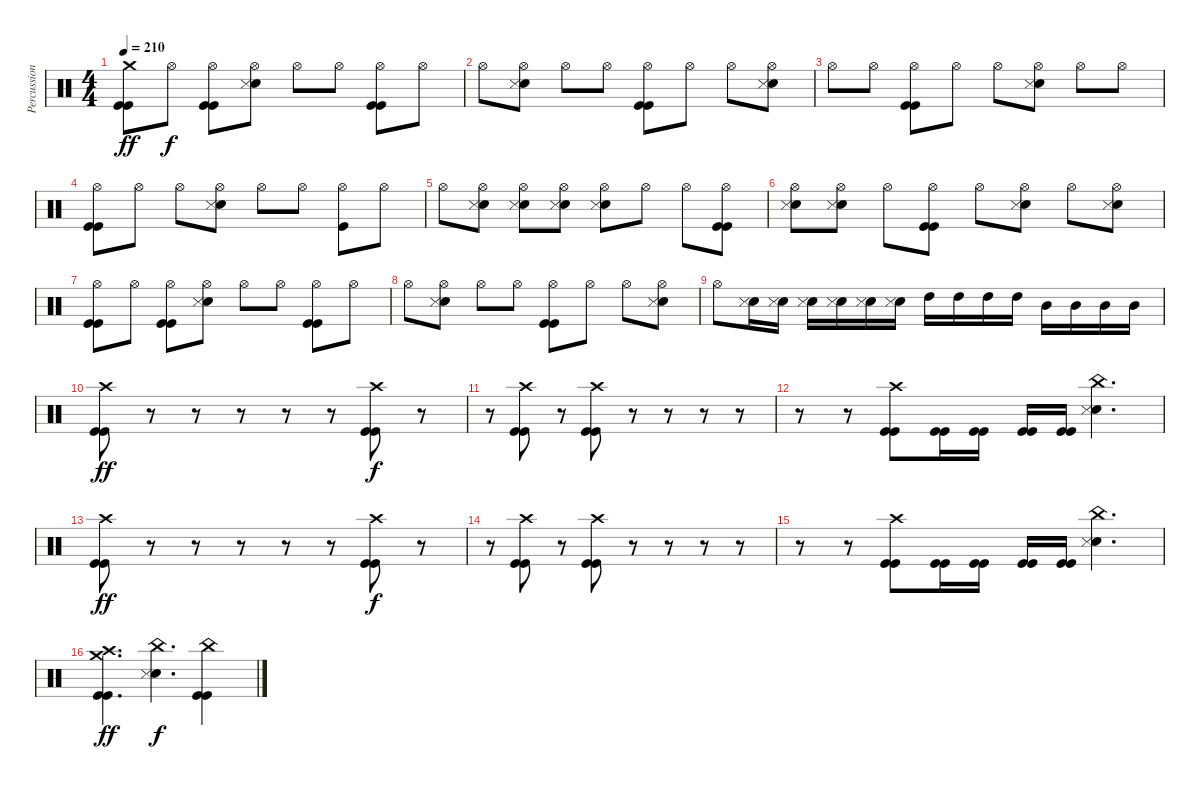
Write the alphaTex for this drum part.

\track ("Percussion" "Percussion") {instrument percussion}
\staff {score}
\articulation defaults
\ts (4 4)
\tempo 210
\clef neutral
\ks c
("Crash medium (hit)" "Kick (hit)" "Kick (hit)").8{dy ff} "Hi-Hat (open)".8{dy f} ("Hi-Hat (open)" "Kick (hit)" "Kick (hit)").8 ("Hi-Hat (open)" "Snare (hit) 2" "Snare (side stick) 3").8 "Hi-Hat (open)".8 "Hi-Hat (open)".8 ("Hi-Hat (open)" "Kick (hit)" "Kick (hit)").8 "Hi-Hat (open)".8 |
"Hi-Hat (open)".8 ("Hi-Hat (open)" "Snare (hit) 2" "Snare (side stick) 3").8 "Hi-Hat (open)".8 "Hi-Hat (open)".8 ("Hi-Hat (open)" "Kick (hit)" "Kick (hit)").8 "Hi-Hat (open)".8 "Hi-Hat (open)".8 ("Hi-Hat (open)" "Snare (hit) 2" "Snare (side stick) 3").8 |
"Hi-Hat (open)".8 "Hi-Hat (open)".8 ("Hi-Hat (open)" "Kick (hit)" "Kick (hit)").8 "Hi-Hat (open)".8 "Hi-Hat (open)".8 ("Hi-Hat (open)" "Snare (hit) 2" "Snare (side stick) 3").8 "Hi-Hat (open)".8 "Hi-Hat (open)".8 |
("Hi-Hat (open)" "Kick (hit)" "Kick (hit)").8 "Hi-Hat (open)".8 "Hi-Hat (open)".8 ("Hi-Hat (open)" "Snare (hit) 2" "Snare (side stick) 3").8 "Hi-Hat (open)".8 "Hi-Hat (open)".8 ("Hi-Hat (open)" "Kick (hit)").8 "Hi-Hat (open)".8 |
"Hi-Hat (open)".8 ("Hi-Hat (open)" "Snare (hit) 2" "Snare (side stick) 3").8 ("Hi-Hat (open)" "Snare (hit) 2" "Snare (side stick) 3").8 ("Hi-Hat (open)" "Snare (hit) 2" "Snare (side stick) 3").8 ("Hi-Hat (open)" "Snare (hit) 2" "Snare (side stick) 3").8 "Hi-Hat (open)".8 "Hi-Hat (open)".8 ("Hi-Hat (open)" "Kick (hit)" "Kick (hit)").8 |
("Hi-Hat (open)" "Snare (hit) 2" "Snare (side stick) 3").8 ("Hi-Hat (open)" "Snare (hit) 2" "Snare (side stick) 3").8 "Hi-Hat (open)".8 ("Hi-Hat (open)" "Kick (hit)" "Kick (hit)").8 "Hi-Hat (open)".8 ("Hi-Hat (open)" "Snare (hit) 2" "Snare (side stick) 3").8 "Hi-Hat (open)".8 ("Hi-Hat (open)" "Snare (hit) 2" "Snare (side stick) 3").8 |
("Hi-Hat (open)" "Kick (hit)" "Kick (hit)").8 "Hi-Hat (open)".8 ("Hi-Hat (open)" "Kick (hit)" "Kick (hit)").8 ("Hi-Hat (open)" "Snare (hit) 2" "Snare (side stick) 3").8 "Hi-Hat (open)".8 "Hi-Hat (open)".8 ("Hi-Hat (open)" "Kick (hit)" "Kick (hit)").8 "Hi-Hat (open)".8 |
"Hi-Hat (open)".8 ("Hi-Hat (open)" "Snare (hit) 2" "Snare (side stick) 3").8 "Hi-Hat (open)".8 "Hi-Hat (open)".8 ("Hi-Hat (open)" "Kick (hit)" "Kick (hit)").8 "Hi-Hat (open)".8 "Hi-Hat (open)".8 ("Hi-Hat (open)" "Snare (hit) 2" "Snare (side stick) 3").8 |
"Hi-Hat (open)".8 ("Snare (hit) 2" "Snare (side stick) 3").16 ("Snare (hit) 2" "Snare (side stick) 3").16 ("Snare (hit) 2" "Snare (side stick) 3").16 ("Snare (hit) 2" "Snare (side stick) 3").16 ("Snare (hit) 2" "Snare (side stick) 3").16 ("Snare (hit) 2" "Snare (side stick) 3").16 "High Tom (hit)".16 "High Tom (hit)".16 "High Tom (hit)".16 "High Tom (hit)".16 "Mid Tom (hit)".16 "Mid Tom (hit)".16 "Mid Tom (hit)".16 "Mid Tom (hit)".16 |
("Crash high (hit)" "Kick (hit)" "Kick (hit)").8{dy ff} r.8 r.8 r.8 r.8 r.8 ("Crash high (hit)" "Kick (hit)" "Kick (hit)").8{dy f} r.8 |
r.8 ("Crash high (hit)" "Kick (hit)" "Kick (hit)").8 r.8 ("Crash high (hit)" "Kick (hit)" "Kick (hit)").8 r.8 r.8 r.8 r.8 |
r.8 r.8 ("Crash high (hit)" "Kick (hit)" "Kick (hit)").8 ("Kick (hit)" "Kick (hit)").16 ("Kick (hit)" "Kick (hit)").16 ("Kick (hit)" "Kick (hit)").16 ("Kick (hit)" "Kick (hit)").16 ("China (hit)" "Snare (hit) 2" "Snare (side stick) 3").4{d} |
("Crash high (hit)" "Kick (hit)" "Kick (hit)").8{dy ff} r.8 r.8 r.8 r.8 r.8 ("Crash high (hit)" "Kick (hit)" "Kick (hit)").8{dy f} r.8 |
r.8 ("Crash high (hit)" "Kick (hit)" "Kick (hit)").8 r.8 ("Crash high (hit)" "Kick (hit)" "Kick (hit)").8 r.8 r.8 r.8 r.8 |
r.8 r.8 ("Crash high (hit)" "Kick (hit)" "Kick (hit)").8 ("Kick (hit)" "Kick (hit)").16 ("Kick (hit)" "Kick (hit)").16 ("Kick (hit)" "Kick (hit)").16 ("Kick (hit)" "Kick (hit)").16 ("China (hit)" "Snare (hit) 2" "Snare (side stick) 3").4{d} |
("Crash medium (hit)" "Crash high (hit)" "Kick (hit)" "Kick (hit)").4{d dy ff} ("China (hit)" "Snare (hit) 2" "Snare (side stick) 3").4{d dy f} ("China (hit)" "Kick (hit)" "Kick (hit)").4
